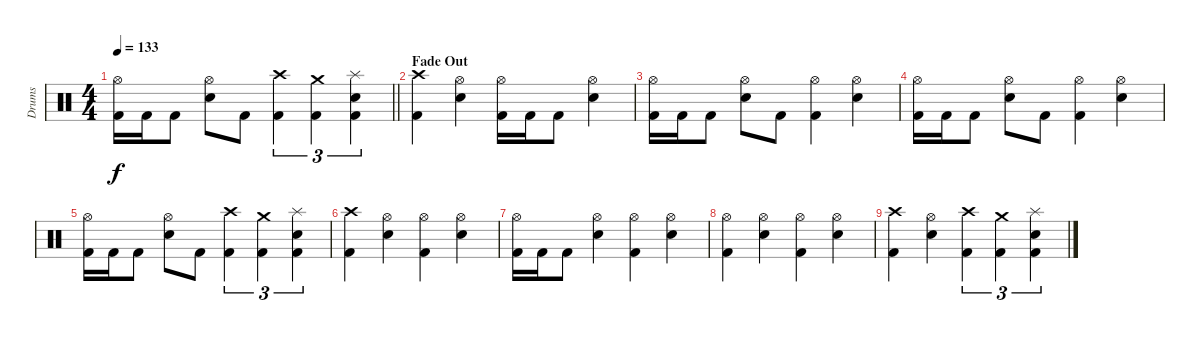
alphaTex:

\track ("Drums" "Drums") {instrument percussion}
\staff {score}
\articulation defaults
\ts (4 4)
\tempo 133
\clef neutral
\barLineRight lightlight
\ks aminor
("Hi-Hat (open)" "Kick (hit) 2").16{dy f} "Kick (hit) 2".16 "Kick (hit) 2".8 ("Hi-Hat (open)" "Electric Snare (hit)").8 "Kick (hit) 2".8 ("Crash high (hit)" "Kick (hit) 2").4{tu (3 2)} ("Crash medium (hit)" "Kick (hit) 2").4{tu (3 2)} ("Splash (hit)" "Electric Snare (hit)" "Kick (hit) 2").4{tu (3 2)} |
\section ("" "Fade Out")
("Crash high (hit)" "Kick (hit) 2").4 ("Hi-Hat (open)" "Electric Snare (hit)").4 ("Hi-Hat (open)" "Kick (hit) 2").16 "Kick (hit) 2".16 "Kick (hit) 2".8 ("Hi-Hat (open)" "Electric Snare (hit)").4 |
("Hi-Hat (open)" "Kick (hit) 2").16 "Kick (hit) 2".16 "Kick (hit) 2".8 ("Hi-Hat (open)" "Electric Snare (hit)").8 "Kick (hit) 2".8 ("Hi-Hat (open)" "Kick (hit) 2").4 ("Hi-Hat (open)" "Electric Snare (hit)").4 |
("Hi-Hat (open)" "Kick (hit) 2").16 "Kick (hit) 2".16 "Kick (hit) 2".8 ("Hi-Hat (open)" "Electric Snare (hit)").8 "Kick (hit) 2".8 ("Hi-Hat (open)" "Kick (hit) 2").4 ("Hi-Hat (open)" "Electric Snare (hit)").4 |
("Hi-Hat (open)" "Kick (hit) 2").16 "Kick (hit) 2".16 "Kick (hit) 2".8 ("Hi-Hat (open)" "Electric Snare (hit)").8 "Kick (hit) 2".8 ("Crash high (hit)" "Kick (hit) 2").4{tu (3 2)} ("Crash medium (hit)" "Kick (hit) 2").4{tu (3 2)} ("Splash (hit)" "Electric Snare (hit)" "Kick (hit) 2").4{tu (3 2)} |
("Crash high (hit)" "Kick (hit) 2").4 ("Hi-Hat (open)" "Electric Snare (hit)").4 ("Hi-Hat (open)" "Kick (hit) 2").4 ("Hi-Hat (open)" "Electric Snare (hit)").4 |
("Hi-Hat (open)" "Kick (hit) 2").16 "Kick (hit) 2".16 "Kick (hit) 2".8 ("Hi-Hat (open)" "Electric Snare (hit)").4 ("Hi-Hat (open)" "Kick (hit) 2").4 ("Hi-Hat (open)" "Electric Snare (hit)").4 |
("Hi-Hat (open)" "Kick (hit) 2").4 ("Hi-Hat (open)" "Electric Snare (hit)").4 ("Hi-Hat (open)" "Kick (hit) 2").4 ("Hi-Hat (open)" "Electric Snare (hit)").4 |
("Crash high (hit)" "Kick (hit) 2").4 ("Hi-Hat (open)" "Electric Snare (hit)").4 ("Crash high (hit)" "Kick (hit) 2").4{tu (3 2)} ("Crash medium (hit)" "Kick (hit) 2").4{tu (3 2)} ("Splash (hit)" "Electric Snare (hit)" "Kick (hit) 2").4{tu (3 2)}
